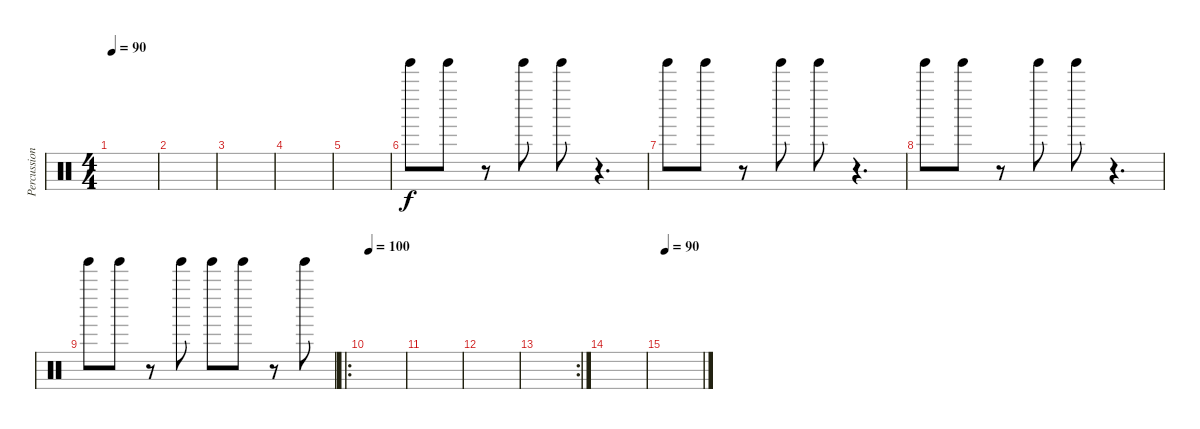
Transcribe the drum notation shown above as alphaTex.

\track ("Percussion" "Percussion") {instrument percussion}
\staff {score}
\articulation defaults
\ts (4 4)
\tempo 90
\clef neutral
\ks c
|
|
|
|
|
"Tinkle Bell (hit)".8 "Tinkle Bell (hit)".8 r.8 "Tinkle Bell (hit)".8 "Tinkle Bell (hit)".8 r.4{d} |
"Tinkle Bell (hit)".8 "Tinkle Bell (hit)".8 r.8 "Tinkle Bell (hit)".8 "Tinkle Bell (hit)".8 r.4{d} |
"Tinkle Bell (hit)".8 "Tinkle Bell (hit)".8 r.8 "Tinkle Bell (hit)".8 "Tinkle Bell (hit)".8 r.4{d} |
"Tinkle Bell (hit)".8 "Tinkle Bell (hit)".8 r.8 "Tinkle Bell (hit)".8 "Tinkle Bell (hit)".8 "Tinkle Bell (hit)".8 r.8 "Tinkle Bell (hit)".8 |
\ro
\tempo 100
|
|
|
\rc 2
|
|
\tempo 90
